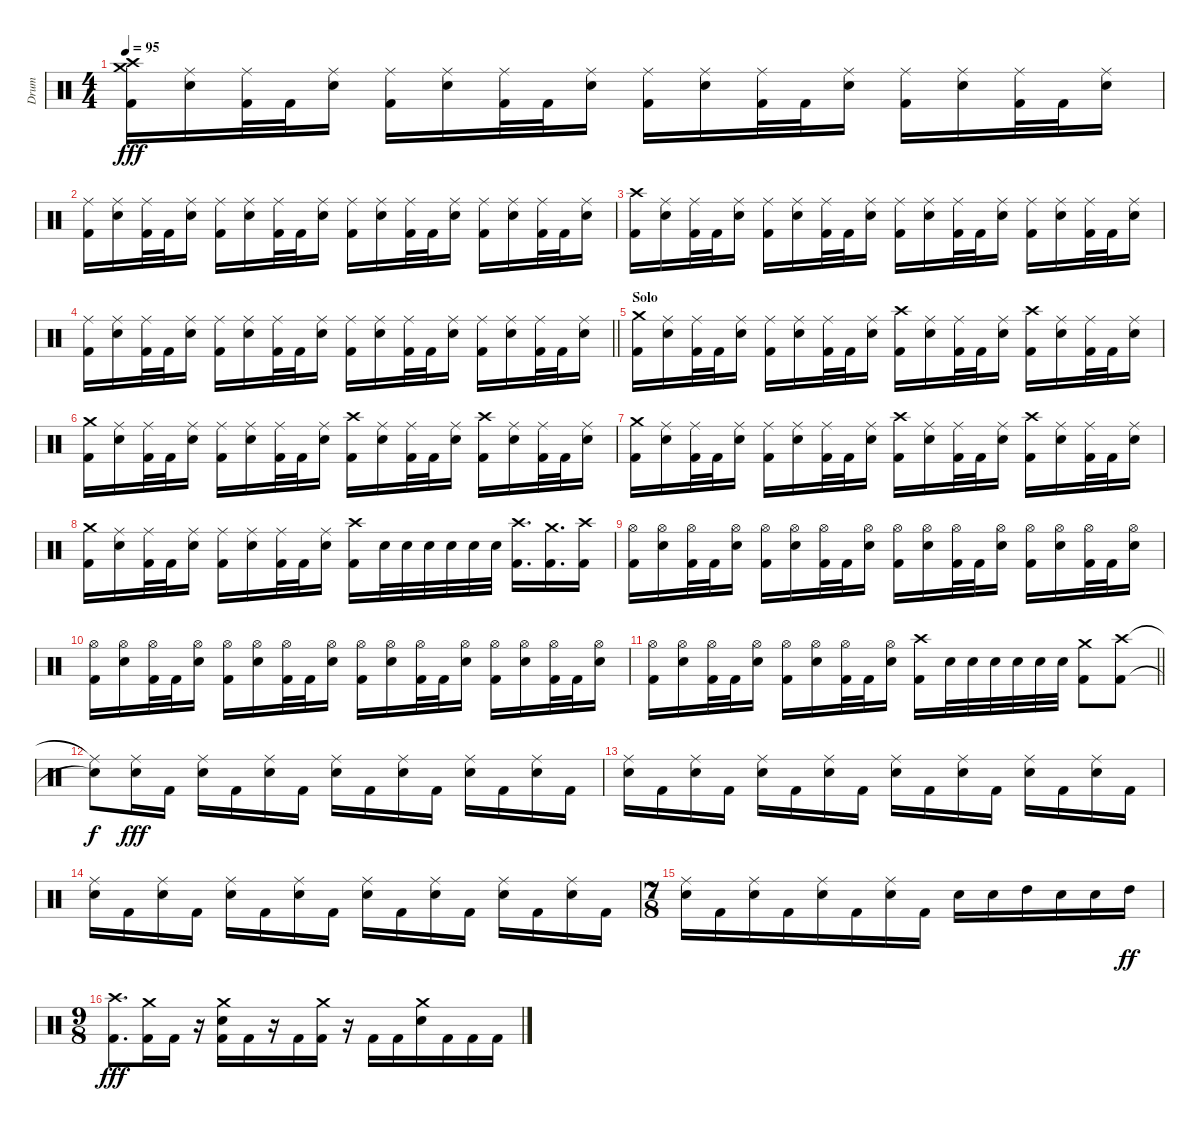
\track ("Drum" "Drum") {instrument percussion}
\staff {score}
\articulation defaults
\ts (4 4)
\tempo 95
\clef neutral
\ks c
("Crash medium (hit)" "Crash high (hit)" "Kick (hit) 2").16{dy fff} ("Ride (middle)" "Electric Snare (hit)").16 ("Ride (middle)" "Kick (hit) 2").32 "Kick (hit) 2".32 ("Ride (middle)" "Electric Snare (hit)").16 ("Ride (middle)" "Kick (hit) 2").16 ("Ride (middle)" "Electric Snare (hit)").16 ("Ride (middle)" "Kick (hit) 2").32 "Kick (hit) 2".32 ("Ride (middle)" "Electric Snare (hit)").16 ("Ride (middle)" "Kick (hit) 2").16 ("Ride (middle)" "Electric Snare (hit)").16 ("Ride (middle)" "Kick (hit) 2").32 "Kick (hit) 2".32 ("Ride (middle)" "Electric Snare (hit)").16 ("Ride (middle)" "Kick (hit) 2").16 ("Ride (middle)" "Electric Snare (hit)").16 ("Ride (middle)" "Kick (hit) 2").32 "Kick (hit) 2".32 ("Ride (middle)" "Electric Snare (hit)").16 |
("Ride (middle)" "Kick (hit) 2").16 ("Ride (middle)" "Electric Snare (hit)").16 ("Ride (middle)" "Kick (hit) 2").32 "Kick (hit) 2".32 ("Ride (middle)" "Electric Snare (hit)").16 ("Ride (middle)" "Kick (hit) 2").16 ("Ride (middle)" "Electric Snare (hit)").16 ("Ride (middle)" "Kick (hit) 2").32 "Kick (hit) 2".32 ("Ride (middle)" "Electric Snare (hit)").16 ("Ride (middle)" "Kick (hit) 2").16 ("Ride (middle)" "Electric Snare (hit)").16 ("Ride (middle)" "Kick (hit) 2").32 "Kick (hit) 2".32 ("Ride (middle)" "Electric Snare (hit)").16 ("Ride (middle)" "Kick (hit) 2").16 ("Ride (middle)" "Electric Snare (hit)").16 ("Ride (middle)" "Kick (hit) 2").32 "Kick (hit) 2".32 ("Ride (middle)" "Electric Snare (hit)").16 |
("Crash high (hit)" "Kick (hit) 2").16 ("Ride (middle)" "Electric Snare (hit)").16 ("Ride (middle)" "Kick (hit) 2").32 "Kick (hit) 2".32 ("Ride (middle)" "Electric Snare (hit)").16 ("Ride (middle)" "Kick (hit) 2").16 ("Ride (middle)" "Electric Snare (hit)").16 ("Ride (middle)" "Kick (hit) 2").32 "Kick (hit) 2".32 ("Ride (middle)" "Electric Snare (hit)").16 ("Ride (middle)" "Kick (hit) 2").16 ("Ride (middle)" "Electric Snare (hit)").16 ("Ride (middle)" "Kick (hit) 2").32 "Kick (hit) 2".32 ("Ride (middle)" "Electric Snare (hit)").16 ("Ride (middle)" "Kick (hit) 2").16 ("Ride (middle)" "Electric Snare (hit)").16 ("Ride (middle)" "Kick (hit) 2").32 "Kick (hit) 2".32 ("Ride (middle)" "Electric Snare (hit)").16 |
\barLineRight lightlight
("Ride (middle)" "Kick (hit) 2").16 ("Ride (middle)" "Electric Snare (hit)").16 ("Ride (middle)" "Kick (hit) 2").32 "Kick (hit) 2".32 ("Ride (middle)" "Electric Snare (hit)").16 ("Ride (middle)" "Kick (hit) 2").16 ("Ride (middle)" "Electric Snare (hit)").16 ("Ride (middle)" "Kick (hit) 2").32 "Kick (hit) 2".32 ("Ride (middle)" "Electric Snare (hit)").16 ("Ride (middle)" "Kick (hit) 2").16 ("Ride (middle)" "Electric Snare (hit)").16 ("Ride (middle)" "Kick (hit) 2").32 "Kick (hit) 2".32 ("Ride (middle)" "Electric Snare (hit)").16 ("Ride (middle)" "Kick (hit) 2").16 ("Ride (middle)" "Electric Snare (hit)").16 ("Ride (middle)" "Kick (hit) 2").32 "Kick (hit) 2".32 ("Ride (middle)" "Electric Snare (hit)").16 |
\section ("" "Solo")
("Crash medium (hit)" "Kick (hit) 2").16 ("Ride (middle)" "Electric Snare (hit)").16 ("Ride (middle)" "Kick (hit) 2").32 "Kick (hit) 2".32 ("Ride (middle)" "Electric Snare (hit)").16 ("Ride (middle)" "Kick (hit) 2").16 ("Ride (middle)" "Electric Snare (hit)").16 ("Ride (middle)" "Kick (hit) 2").32 "Kick (hit) 2".32 ("Ride (middle)" "Electric Snare (hit)").16 ("Crash high (hit)" "Kick (hit) 2").16 ("Ride (middle)" "Electric Snare (hit)").16 ("Ride (middle)" "Kick (hit) 2").32 "Kick (hit) 2".32 ("Ride (middle)" "Electric Snare (hit)").16 ("Crash high (hit)" "Kick (hit) 2").16 ("Ride (middle)" "Electric Snare (hit)").16 ("Ride (middle)" "Kick (hit) 2").32 "Kick (hit) 2".32 ("Ride (middle)" "Electric Snare (hit)").16 |
("Crash medium (hit)" "Kick (hit) 2").16 ("Ride (middle)" "Electric Snare (hit)").16 ("Ride (middle)" "Kick (hit) 2").32 "Kick (hit) 2".32 ("Ride (middle)" "Electric Snare (hit)").16 ("Ride (middle)" "Kick (hit) 2").16 ("Ride (middle)" "Electric Snare (hit)").16 ("Ride (middle)" "Kick (hit) 2").32 "Kick (hit) 2".32 ("Ride (middle)" "Electric Snare (hit)").16 ("Crash high (hit)" "Kick (hit) 2").16 ("Ride (middle)" "Electric Snare (hit)").16 ("Ride (middle)" "Kick (hit) 2").32 "Kick (hit) 2".32 ("Ride (middle)" "Electric Snare (hit)").16 ("Crash high (hit)" "Kick (hit) 2").16 ("Ride (middle)" "Electric Snare (hit)").16 ("Ride (middle)" "Kick (hit) 2").32 "Kick (hit) 2".32 ("Ride (middle)" "Electric Snare (hit)").16 |
("Crash medium (hit)" "Kick (hit) 2").16 ("Ride (middle)" "Electric Snare (hit)").16 ("Ride (middle)" "Kick (hit) 2").32 "Kick (hit) 2".32 ("Ride (middle)" "Electric Snare (hit)").16 ("Ride (middle)" "Kick (hit) 2").16 ("Ride (middle)" "Electric Snare (hit)").16 ("Ride (middle)" "Kick (hit) 2").32 "Kick (hit) 2".32 ("Ride (middle)" "Electric Snare (hit)").16 ("Crash high (hit)" "Kick (hit) 2").16 ("Ride (middle)" "Electric Snare (hit)").16 ("Ride (middle)" "Kick (hit) 2").32 "Kick (hit) 2".32 ("Ride (middle)" "Electric Snare (hit)").16 ("Crash high (hit)" "Kick (hit) 2").16 ("Ride (middle)" "Electric Snare (hit)").16 ("Ride (middle)" "Kick (hit) 2").32 "Kick (hit) 2".32 ("Ride (middle)" "Electric Snare (hit)").16 |
("Crash medium (hit)" "Kick (hit) 2").16 ("Ride (middle)" "Electric Snare (hit)").16 ("Ride (middle)" "Kick (hit) 2").32 "Kick (hit) 2".32 ("Ride (middle)" "Electric Snare (hit)").16 ("Ride (middle)" "Kick (hit) 2").16 ("Ride (middle)" "Electric Snare (hit)").16 ("Ride (middle)" "Kick (hit) 2").32 "Kick (hit) 2".32 ("Ride (middle)" "Electric Snare (hit)").16 ("Crash high (hit)" "Kick (hit) 2").16 "Electric Snare (hit)".32 "Electric Snare (hit)".32 "Electric Snare (hit)".32 "Electric Snare (hit)".32 "Electric Snare (hit)".32 "Electric Snare (hit)".32 ("Crash high (hit)" "Kick (hit) 2").16{d} ("Crash medium (hit)" "Kick (hit) 2").16{d} ("Crash high (hit)" "Kick (hit) 2").16 |
("Hi-Hat (open)" "Kick (hit) 2").16 ("Hi-Hat (open)" "Electric Snare (hit)").16 ("Hi-Hat (open)" "Kick (hit) 2").32 "Kick (hit) 2".32 ("Hi-Hat (open)" "Electric Snare (hit)").16 ("Hi-Hat (open)" "Kick (hit) 2").16 ("Hi-Hat (open)" "Electric Snare (hit)").16 ("Hi-Hat (open)" "Kick (hit) 2").32 "Kick (hit) 2".32 ("Hi-Hat (open)" "Electric Snare (hit)").16 ("Hi-Hat (open)" "Kick (hit) 2").16 ("Hi-Hat (open)" "Electric Snare (hit)").16 ("Hi-Hat (open)" "Kick (hit) 2").32 "Kick (hit) 2".32 ("Hi-Hat (open)" "Electric Snare (hit)").16 ("Hi-Hat (open)" "Kick (hit) 2").16 ("Hi-Hat (open)" "Electric Snare (hit)").16 ("Hi-Hat (open)" "Kick (hit) 2").32 "Kick (hit) 2".32 ("Hi-Hat (open)" "Electric Snare (hit)").16 |
("Hi-Hat (open)" "Kick (hit) 2").16 ("Hi-Hat (open)" "Electric Snare (hit)").16 ("Hi-Hat (open)" "Kick (hit) 2").32 "Kick (hit) 2".32 ("Hi-Hat (open)" "Electric Snare (hit)").16 ("Hi-Hat (open)" "Kick (hit) 2").16 ("Hi-Hat (open)" "Electric Snare (hit)").16 ("Hi-Hat (open)" "Kick (hit) 2").32 "Kick (hit) 2".32 ("Hi-Hat (open)" "Electric Snare (hit)").16 ("Hi-Hat (open)" "Kick (hit) 2").16 ("Hi-Hat (open)" "Electric Snare (hit)").16 ("Hi-Hat (open)" "Kick (hit) 2").32 "Kick (hit) 2".32 ("Hi-Hat (open)" "Electric Snare (hit)").16 ("Hi-Hat (open)" "Kick (hit) 2").16 ("Hi-Hat (open)" "Electric Snare (hit)").16 ("Hi-Hat (open)" "Kick (hit) 2").32 "Kick (hit) 2".32 ("Hi-Hat (open)" "Electric Snare (hit)").16 |
\barLineRight lightlight
("Hi-Hat (open)" "Kick (hit) 2").16 ("Hi-Hat (open)" "Electric Snare (hit)").16 ("Hi-Hat (open)" "Kick (hit) 2").32 "Kick (hit) 2".32 ("Hi-Hat (open)" "Electric Snare (hit)").16 ("Hi-Hat (open)" "Kick (hit) 2").16 ("Hi-Hat (open)" "Electric Snare (hit)").16 ("Hi-Hat (open)" "Kick (hit) 2").32 "Kick (hit) 2".32 ("Hi-Hat (open)" "Electric Snare (hit)").16 ("Crash high (hit)" "Kick (hit) 2").16 "Electric Snare (hit)".32 "Electric Snare (hit)".32 "Electric Snare (hit)".32 "Electric Snare (hit)".32 "Electric Snare (hit)".32 "Electric Snare (hit)".32 ("Crash medium (hit)" "Kick (hit) 2").8 ("Crash high (hit)" "Kick (hit) 2").8 |
("Ride (middle)"{t} "Snare (hit)"{t}).8{dy f} ("Ride (middle)" "Electric Snare (hit)").16{dy fff} "Kick (hit) 2".16 ("Ride (middle)" "Electric Snare (hit)").16 "Kick (hit) 2".16 ("Ride (middle)" "Electric Snare (hit)").16 "Kick (hit) 2".16 ("Ride (middle)" "Electric Snare (hit)").16 "Kick (hit) 2".16 ("Ride (middle)" "Electric Snare (hit)").16 "Kick (hit) 2".16 ("Ride (middle)" "Electric Snare (hit)").16 "Kick (hit) 2".16 ("Ride (middle)" "Electric Snare (hit)").16 "Kick (hit) 2".16 |
("Ride (middle)" "Electric Snare (hit)").16 "Kick (hit) 2".16 ("Ride (middle)" "Electric Snare (hit)").16 "Kick (hit) 2".16 ("Ride (middle)" "Electric Snare (hit)").16 "Kick (hit) 2".16 ("Ride (middle)" "Electric Snare (hit)").16 "Kick (hit) 2".16 ("Ride (middle)" "Electric Snare (hit)").16 "Kick (hit) 2".16 ("Ride (middle)" "Electric Snare (hit)").16 "Kick (hit) 2".16 ("Ride (middle)" "Electric Snare (hit)").16 "Kick (hit) 2".16 ("Ride (middle)" "Electric Snare (hit)").16 "Kick (hit) 2".16 |
("Ride (middle)" "Electric Snare (hit)").16 "Kick (hit) 2".16 ("Ride (middle)" "Electric Snare (hit)").16 "Kick (hit) 2".16 ("Ride (middle)" "Electric Snare (hit)").16 "Kick (hit) 2".16 ("Ride (middle)" "Electric Snare (hit)").16 "Kick (hit) 2".16 ("Ride (middle)" "Electric Snare (hit)").16 "Kick (hit) 2".16 ("Ride (middle)" "Electric Snare (hit)").16 "Kick (hit) 2".16 ("Ride (middle)" "Electric Snare (hit)").16 "Kick (hit) 2".16 ("Ride (middle)" "Electric Snare (hit)").16 "Kick (hit) 2".16 |
\ts (7 8)
("Ride (middle)" "Electric Snare (hit)").16 "Kick (hit) 2".16 ("Ride (middle)" "Electric Snare (hit)").16 "Kick (hit) 2".16 ("Ride (middle)" "Electric Snare (hit)").16 "Kick (hit) 2".16 ("Ride (middle)" "Electric Snare (hit)").16 "Kick (hit) 2".16 "Electric Snare (hit)".16 "Electric Snare (hit)".16 "High Tom (hit)".16 "Electric Snare (hit)".16 "Electric Snare (hit)".16 "High Tom (hit)".16{dy ff} |
\ts (9 8)
("Crash high (hit)" "Kick (hit) 2").8{d dy fff} ("Crash medium (hit)" "Kick (hit) 2").16 "Kick (hit) 2".16 r.16 ("Crash medium (hit)" "Electric Snare (hit)" "Kick (hit) 2").16 "Kick (hit) 2".16 r.16 "Kick (hit) 2".16 ("Crash medium (hit)" "Kick (hit) 2").16 r.16 "Kick (hit) 2".16 "Kick (hit) 2".16 ("Crash medium (hit)" "Electric Snare (hit)").16 "Kick (hit) 2".16 "Kick (hit) 2".16 "Kick (hit) 2".16
